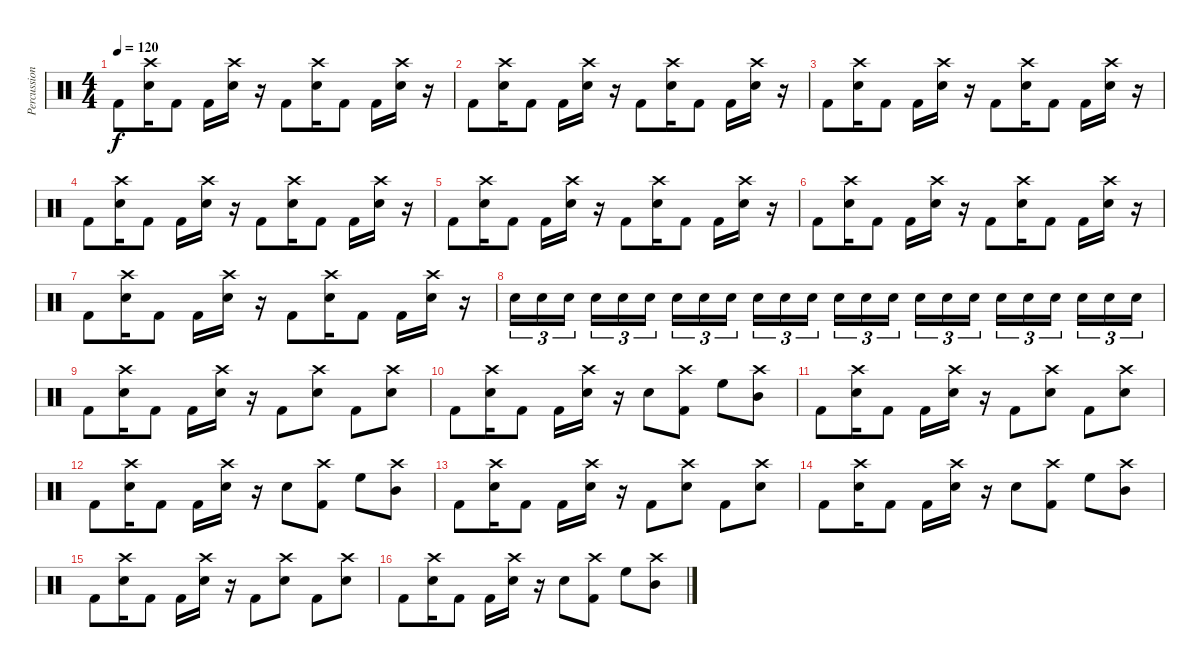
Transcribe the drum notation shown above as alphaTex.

\track ("Percussion" "Percussion") {instrument percussion}
\staff {score}
\articulation defaults
\ts (4 4)
\tempo 120
\clef neutral
\ks c "Kick (hit) 2".8{dy f}
("Crash high (hit)" "Electric Snare (hit)").16 "Kick (hit) 2".8 "Kick (hit) 2".16 ("Crash high (hit)" "Electric Snare (hit)").16 r.16 "Kick (hit) 2".8 ("Crash high (hit)" "Electric Snare (hit)").16 "Kick (hit) 2".8 "Kick (hit) 2".16 ("Crash high (hit)" "Electric Snare (hit)").16 r.16 |
"Kick (hit) 2".8 ("Crash high (hit)" "Electric Snare (hit)").16 "Kick (hit) 2".8 "Kick (hit) 2".16 ("Crash high (hit)" "Electric Snare (hit)").16 r.16 "Kick (hit) 2".8 ("Crash high (hit)" "Electric Snare (hit)").16 "Kick (hit) 2".8 "Kick (hit) 2".16 ("Crash high (hit)" "Electric Snare (hit)").16 r.16 |
"Kick (hit) 2".8 ("Crash high (hit)" "Electric Snare (hit)").16 "Kick (hit) 2".8 "Kick (hit) 2".16 ("Crash high (hit)" "Electric Snare (hit)").16 r.16 "Kick (hit) 2".8 ("Crash high (hit)" "Electric Snare (hit)").16 "Kick (hit) 2".8 "Kick (hit) 2".16 ("Crash high (hit)" "Electric Snare (hit)").16 r.16 |
"Kick (hit) 2".8 ("Crash high (hit)" "Electric Snare (hit)").16 "Kick (hit) 2".8 "Kick (hit) 2".16 ("Crash high (hit)" "Electric Snare (hit)").16 r.16 "Kick (hit) 2".8 ("Crash high (hit)" "Electric Snare (hit)").16 "Kick (hit) 2".8 "Kick (hit) 2".16 ("Crash high (hit)" "Electric Snare (hit)").16 r.16 |
"Kick (hit) 2".8 ("Crash high (hit)" "Electric Snare (hit)").16 "Kick (hit) 2".8 "Kick (hit) 2".16 ("Crash high (hit)" "Electric Snare (hit)").16 r.16 "Kick (hit) 2".8 ("Crash high (hit)" "Electric Snare (hit)").16 "Kick (hit) 2".8 "Kick (hit) 2".16 ("Crash high (hit)" "Electric Snare (hit)").16 r.16 |
"Kick (hit) 2".8 ("Crash high (hit)" "Electric Snare (hit)").16 "Kick (hit) 2".8 "Kick (hit) 2".16 ("Crash high (hit)" "Electric Snare (hit)").16 r.16 "Kick (hit) 2".8 ("Crash high (hit)" "Electric Snare (hit)").16 "Kick (hit) 2".8 "Kick (hit) 2".16 ("Crash high (hit)" "Electric Snare (hit)").16 r.16 |
"Kick (hit) 2".8 ("Crash high (hit)" "Electric Snare (hit)").16 "Kick (hit) 2".8 "Kick (hit) 2".16 ("Crash high (hit)" "Electric Snare (hit)").16 r.16 "Kick (hit) 2".8 ("Crash high (hit)" "Electric Snare (hit)").16 "Kick (hit) 2".8 "Kick (hit) 2".16 ("Crash high (hit)" "Electric Snare (hit)").16 r.16 |
"Electric Snare (hit)".16{tu (3 2)} "Electric Snare (hit)".16{tu (3 2)} "Electric Snare (hit)".16{tu (3 2)} "Electric Snare (hit)".16{tu (3 2)} "Electric Snare (hit)".16{tu (3 2)} "Electric Snare (hit)".16{tu (3 2)} "Electric Snare (hit)".16{tu (3 2)} "Electric Snare (hit)".16{tu (3 2)} "Electric Snare (hit)".16{tu (3 2)} "Electric Snare (hit)".16{tu (3 2)} "Electric Snare (hit)".16{tu (3 2)} "Electric Snare (hit)".16{tu (3 2)} "Electric Snare (hit)".16{tu (3 2)} "Electric Snare (hit)".16{tu (3 2)} "Electric Snare (hit)".16{tu (3 2)} "Electric Snare (hit)".16{tu (3 2)} "Electric Snare (hit)".16{tu (3 2)} "Electric Snare (hit)".16{tu (3 2)} "Electric Snare (hit)".16{tu (3 2)} "Electric Snare (hit)".16{tu (3 2)} "Electric Snare (hit)".16{tu (3 2)} "Electric Snare (hit)".16{tu (3 2)} "Electric Snare (hit)".16{tu (3 2)} "Electric Snare (hit)".16{tu (3 2)} |
"Kick (hit) 2".8 ("Crash high (hit)" "Electric Snare (hit)").16 "Kick (hit) 2".8 "Kick (hit) 2".16 ("Crash high (hit)" "Electric Snare (hit)").16 r.16 "Kick (hit) 2".8 ("Crash high (hit)" "Electric Snare (hit)").8 "Kick (hit) 2".8 ("Crash high (hit)" "Electric Snare (hit)").8 |
"Kick (hit) 2".8 ("Crash high (hit)" "Electric Snare (hit)").16 "Kick (hit) 2".8 "Kick (hit) 2".16 ("Crash high (hit)" "Electric Snare (hit)").16 r.16 "Electric Snare (hit)".8 ("Crash high (hit)" "Kick (hit) 2").8 "High Floor Tom (hit)".8 ("Crash high (hit)" "Mid Tom (hit)").8 |
"Kick (hit) 2".8 ("Crash high (hit)" "Electric Snare (hit)").16 "Kick (hit) 2".8 "Kick (hit) 2".16 ("Crash high (hit)" "Electric Snare (hit)").16 r.16 "Kick (hit) 2".8 ("Crash high (hit)" "Electric Snare (hit)").8 "Kick (hit) 2".8 ("Crash high (hit)" "Electric Snare (hit)").8 |
"Kick (hit) 2".8 ("Crash high (hit)" "Electric Snare (hit)").16 "Kick (hit) 2".8 "Kick (hit) 2".16 ("Crash high (hit)" "Electric Snare (hit)").16 r.16 "Electric Snare (hit)".8 ("Crash high (hit)" "Kick (hit) 2").8 "High Floor Tom (hit)".8 ("Crash high (hit)" "Mid Tom (hit)").8 |
"Kick (hit) 2".8 ("Crash high (hit)" "Electric Snare (hit)").16 "Kick (hit) 2".8 "Kick (hit) 2".16 ("Crash high (hit)" "Electric Snare (hit)").16 r.16 "Kick (hit) 2".8 ("Crash high (hit)" "Electric Snare (hit)").8 "Kick (hit) 2".8 ("Crash high (hit)" "Electric Snare (hit)").8 |
"Kick (hit) 2".8 ("Crash high (hit)" "Electric Snare (hit)").16 "Kick (hit) 2".8 "Kick (hit) 2".16 ("Crash high (hit)" "Electric Snare (hit)").16 r.16 "Electric Snare (hit)".8 ("Crash high (hit)" "Kick (hit) 2").8 "High Floor Tom (hit)".8 ("Crash high (hit)" "Mid Tom (hit)").8 |
"Kick (hit) 2".8 ("Crash high (hit)" "Electric Snare (hit)").16 "Kick (hit) 2".8 "Kick (hit) 2".16 ("Crash high (hit)" "Electric Snare (hit)").16 r.16 "Kick (hit) 2".8 ("Crash high (hit)" "Electric Snare (hit)").8 "Kick (hit) 2".8 ("Crash high (hit)" "Electric Snare (hit)").8 |
"Kick (hit) 2".8 ("Crash high (hit)" "Electric Snare (hit)").16 "Kick (hit) 2".8 "Kick (hit) 2".16 ("Crash high (hit)" "Electric Snare (hit)").16 r.16 "Electric Snare (hit)".8 ("Crash high (hit)" "Kick (hit) 2").8 "High Floor Tom (hit)".8 ("Crash high (hit)" "Mid Tom (hit)").8
